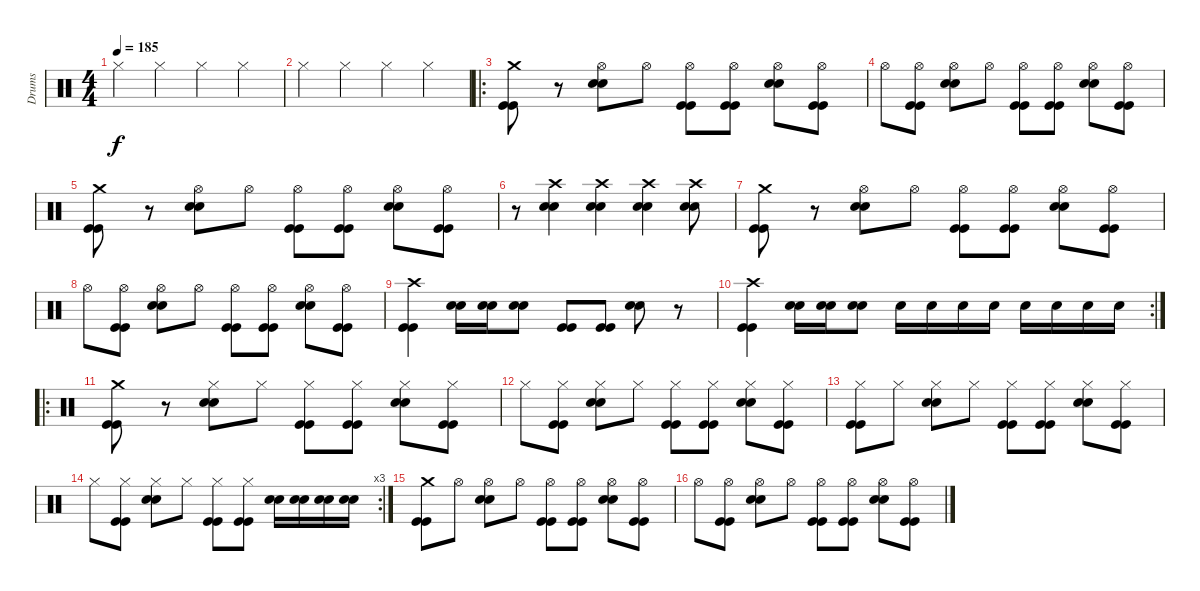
\track ("Drums" "Drums") {instrument percussion}
\staff {score}
\articulation defaults
\ts (4 4)
\tempo 185
\clef neutral
\ks c "Hi-Hat (closed)".4{dy f} "Hi-Hat (closed)".4 "Hi-Hat (closed)".4 "Hi-Hat (closed)".4
|
"Hi-Hat (closed)".4 "Hi-Hat (closed)".4 "Hi-Hat (closed)".4 "Hi-Hat (closed)".4 |
\ro
("Crash medium (hit)" "Kick (hit)" "Kick (hit)").8 r.8 ("Hi-Hat (open)" "Electric Snare (hit)" "Electric Snare (hit)").8 "Hi-Hat (open)".8 ("Hi-Hat (open)" "Kick (hit)" "Kick (hit)").8 ("Hi-Hat (open)" "Kick (hit)" "Kick (hit)").8 ("Hi-Hat (open)" "Electric Snare (hit)" "Electric Snare (hit)").8 ("Hi-Hat (open)" "Kick (hit)" "Kick (hit)").8 |
"Hi-Hat (open)".8 ("Hi-Hat (open)" "Kick (hit)" "Kick (hit)").8 ("Hi-Hat (open)" "Electric Snare (hit)" "Electric Snare (hit)").8 "Hi-Hat (open)".8 ("Hi-Hat (open)" "Kick (hit)" "Kick (hit)").8 ("Hi-Hat (open)" "Kick (hit)" "Kick (hit)").8 ("Hi-Hat (open)" "Electric Snare (hit)" "Electric Snare (hit)").8 ("Hi-Hat (open)" "Kick (hit)" "Kick (hit)").8 |
("Crash medium (hit)" "Kick (hit)" "Kick (hit)").8 r.8 ("Hi-Hat (open)" "Electric Snare (hit)" "Electric Snare (hit)").8 "Hi-Hat (open)".8 ("Hi-Hat (open)" "Kick (hit)" "Kick (hit)").8 ("Hi-Hat (open)" "Kick (hit)" "Kick (hit)").8 ("Hi-Hat (open)" "Electric Snare (hit)" "Electric Snare (hit)").8 ("Hi-Hat (open)" "Kick (hit)" "Kick (hit)").8 |
r.8 ("Crash high (hit)" "Electric Snare (hit)" "Electric Snare (hit)").4 ("Crash high (hit)" "Electric Snare (hit)" "Electric Snare (hit)").4 ("Crash high (hit)" "Electric Snare (hit)" "Electric Snare (hit)").4 ("Crash high (hit)" "Electric Snare (hit)" "Electric Snare (hit)").8 |
("Crash medium (hit)" "Kick (hit)" "Kick (hit)").8 r.8 ("Hi-Hat (open)" "Electric Snare (hit)" "Electric Snare (hit)").8 "Hi-Hat (open)".8 ("Hi-Hat (open)" "Kick (hit)" "Kick (hit)").8 ("Hi-Hat (open)" "Kick (hit)" "Kick (hit)").8 ("Hi-Hat (open)" "Electric Snare (hit)" "Electric Snare (hit)").8 ("Hi-Hat (open)" "Kick (hit)" "Kick (hit)").8 |
"Hi-Hat (open)".8 ("Hi-Hat (open)" "Kick (hit)" "Kick (hit)").8 ("Hi-Hat (open)" "Electric Snare (hit)" "Electric Snare (hit)").8 "Hi-Hat (open)".8 ("Hi-Hat (open)" "Kick (hit)" "Kick (hit)").8 ("Hi-Hat (open)" "Kick (hit)" "Kick (hit)").8 ("Hi-Hat (open)" "Electric Snare (hit)" "Electric Snare (hit)").8 ("Hi-Hat (open)" "Kick (hit)" "Kick (hit)").8 |
("Crash high (hit)" "Kick (hit)" "Kick (hit)").4 ("Electric Snare (hit)" "Electric Snare (hit)").16 ("Electric Snare (hit)" "Electric Snare (hit)").16 ("Electric Snare (hit)" "Electric Snare (hit)").8 ("Kick (hit)" "Kick (hit)").8 ("Kick (hit)" "Kick (hit)").8 ("Electric Snare (hit)" "Electric Snare (hit)").8 r.8 |
\rc 2
("Crash high (hit)" "Kick (hit)" "Kick (hit)").4 ("Electric Snare (hit)" "Electric Snare (hit)").16 ("Electric Snare (hit)" "Electric Snare (hit)").16 ("Electric Snare (hit)" "Electric Snare (hit)").8 "Electric Snare (hit)".16 "Electric Snare (hit)".16 "Electric Snare (hit)".16 "Electric Snare (hit)".16 "Electric Snare (hit)".16 "Electric Snare (hit)".16 "Electric Snare (hit)".16 "Electric Snare (hit)".16 |
\ro
("Crash medium (hit)" "Kick (hit)" "Kick (hit)").8 r.8 ("Hi-Hat (closed)" "Electric Snare (hit)" "Electric Snare (hit)").8 "Hi-Hat (closed)".8 ("Hi-Hat (closed)" "Kick (hit)" "Kick (hit)").8 ("Hi-Hat (closed)" "Kick (hit)" "Kick (hit)").8 ("Hi-Hat (closed)" "Electric Snare (hit)" "Electric Snare (hit)").8 ("Hi-Hat (closed)" "Kick (hit)" "Kick (hit)").8 |
"Hi-Hat (closed)".8 ("Hi-Hat (closed)" "Kick (hit)" "Kick (hit)").8 ("Hi-Hat (closed)" "Electric Snare (hit)" "Electric Snare (hit)").8 "Hi-Hat (closed)".8 ("Hi-Hat (closed)" "Kick (hit)" "Kick (hit)").8 ("Hi-Hat (closed)" "Kick (hit)" "Kick (hit)").8 ("Hi-Hat (closed)" "Electric Snare (hit)" "Electric Snare (hit)").8 ("Hi-Hat (closed)" "Kick (hit)" "Kick (hit)").8 |
("Hi-Hat (closed)" "Kick (hit)" "Kick (hit)").8 "Hi-Hat (closed)".8 ("Hi-Hat (closed)" "Electric Snare (hit)" "Electric Snare (hit)").8 "Hi-Hat (closed)".8 ("Hi-Hat (closed)" "Kick (hit)" "Kick (hit)").8 ("Hi-Hat (closed)" "Kick (hit)" "Kick (hit)").8 ("Hi-Hat (closed)" "Electric Snare (hit)" "Electric Snare (hit)").8 ("Hi-Hat (closed)" "Kick (hit)" "Kick (hit)").8 |
\rc 3 "Hi-Hat (closed)".8
("Hi-Hat (closed)" "Kick (hit)" "Kick (hit)").8 ("Hi-Hat (closed)" "Electric Snare (hit)" "Electric Snare (hit)").8 "Hi-Hat (closed)".8 ("Hi-Hat (closed)" "Kick (hit)" "Kick (hit)").8 ("Hi-Hat (closed)" "Kick (hit)" "Kick (hit)").8 ("Electric Snare (hit)" "Electric Snare (hit)").16 ("Electric Snare (hit)" "Electric Snare (hit)").16 ("Electric Snare (hit)" "Electric Snare (hit)").16 ("Electric Snare (hit)" "Electric Snare (hit)").16 |
("Crash medium (hit)" "Kick (hit)" "Kick (hit)").8 "Hi-Hat (open)".8 ("Hi-Hat (open)" "Electric Snare (hit)" "Electric Snare (hit)").8 "Hi-Hat (open)".8 ("Hi-Hat (open)" "Kick (hit)" "Kick (hit)").8 ("Hi-Hat (open)" "Kick (hit)" "Kick (hit)").8 ("Hi-Hat (open)" "Electric Snare (hit)" "Electric Snare (hit)").8 ("Hi-Hat (open)" "Kick (hit)" "Kick (hit)").8 |
"Hi-Hat (open)".8 ("Hi-Hat (open)" "Kick (hit)" "Kick (hit)").8 ("Hi-Hat (open)" "Electric Snare (hit)" "Electric Snare (hit)").8 "Hi-Hat (open)".8 ("Hi-Hat (open)" "Kick (hit)" "Kick (hit)").8 ("Hi-Hat (open)" "Kick (hit)" "Kick (hit)").8 ("Hi-Hat (open)" "Electric Snare (hit)" "Electric Snare (hit)").8 ("Hi-Hat (open)" "Kick (hit)" "Kick (hit)").8
